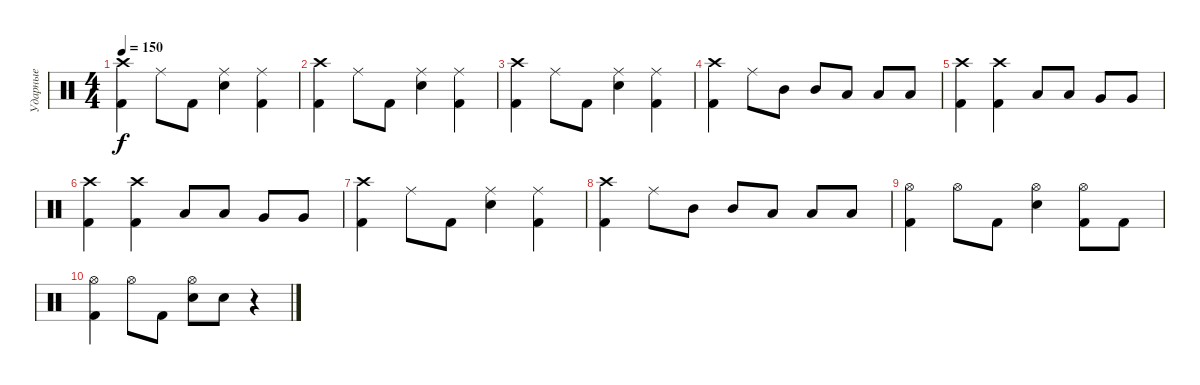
\track ("Ударные" "Ударные") {instrument percussion}
\staff {score}
\articulation defaults
\ts (4 4)
\tempo 150
\clef neutral
\ks c
("Crash high (hit)" "Kick (hit) 2").4{dy f} "Ride (middle)".8 "Kick (hit) 2".8 ("Ride (middle)" "Snare (hit) 2").4 ("Ride (middle)" "Kick (hit) 2").4 |
("Crash high (hit)" "Kick (hit) 2").4 "Ride (middle)".8 "Kick (hit) 2".8 ("Ride (middle)" "Snare (hit) 2").4 ("Ride (middle)" "Kick (hit) 2").4 |
("Crash high (hit)" "Kick (hit) 2").4 "Ride (middle)".8 "Kick (hit) 2".8 ("Ride (middle)" "Snare (hit) 2").4 ("Ride (middle)" "Kick (hit) 2").4 |
("Crash high (hit)" "Kick (hit) 2").4 "Ride (middle)".8 "Mid Tom (hit)".8 "Mid Tom (hit)".8 "Low Tom (hit)".8 "Low Tom (hit)".8 "Low Tom (hit)".8 |
("Crash high (hit)" "Kick (hit) 2").4 ("Crash high (hit)" "Kick (hit) 2").4 "Low Tom (hit)".8 "Low Tom (hit)".8 "Very Low Tom (hit)".8 "Very Low Tom (hit)".8 |
("Crash high (hit)" "Kick (hit) 2").4 ("Crash high (hit)" "Kick (hit) 2").4 "Low Tom (hit)".8 "Low Tom (hit)".8 "Very Low Tom (hit)".8 "Very Low Tom (hit)".8 |
("Crash high (hit)" "Kick (hit) 2").4 "Ride (middle)".8 "Kick (hit) 2".8 ("Ride (middle)" "Snare (hit) 2").4 ("Ride (middle)" "Kick (hit) 2").4 |
("Crash high (hit)" "Kick (hit) 2").4 "Ride (middle)".8 "Mid Tom (hit)".8 "Mid Tom (hit)".8 "Low Tom (hit)".8 "Low Tom (hit)".8 "Low Tom (hit)".8 |
("Hi-Hat (open)" "Kick (hit) 2").4 "Hi-Hat (open)".8 "Kick (hit) 2".8 ("Hi-Hat (open)" "Snare (hit) 2").4 ("Hi-Hat (open)" "Kick (hit) 2").8 "Kick (hit) 2".8 |
("Hi-Hat (open)" "Kick (hit) 2").4 "Hi-Hat (open)".8 "Kick (hit) 2".8 ("Hi-Hat (open)" "Snare (hit) 2").8 "Snare (hit) 2".8 r.4
